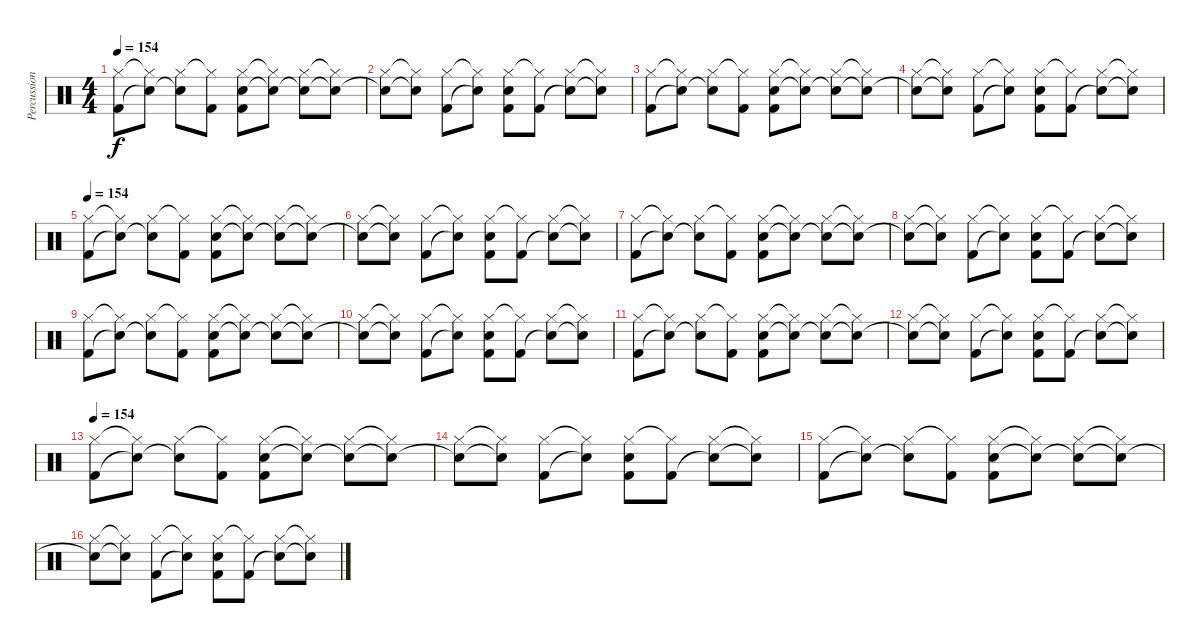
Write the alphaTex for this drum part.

\track ("Percussion" "Percussion") {instrument percussion}
\staff {score}
\articulation defaults
\ts (4 4)
\tempo 154
\clef neutral
\ks c
("Hi-Hat (closed)" "Kick (hit) 2").8{dy f} ("Hi-Hat (closed)"{t} "Snare (hit)"{t}).8 ("Hi-Hat (closed)" "Snare (hit)"{t}).8 ("Hi-Hat (closed)"{t} "Kick (hit) 2").8 ("Hi-Hat (closed)" "Electric Snare (hit)" "Kick (hit) 2").8 ("Hi-Hat (closed)"{t} "Snare (hit)"{t}).8 ("Hi-Hat (closed)" "Snare (hit)"{t}).8 ("Hi-Hat (closed)"{t} "Snare (hit)"{t}).8 |
("Hi-Hat (closed)" "Snare (hit)"{t}).8 ("Hi-Hat (closed)"{t} "Snare (hit)"{t}).8 ("Hi-Hat (closed)" "Kick (hit) 2").8 ("Hi-Hat (closed)"{t} "Snare (hit)"{t}).8 ("Hi-Hat (closed)" "Electric Snare (hit)" "Kick (hit) 2").8 ("Hi-Hat (closed)"{t} "Kick (hit) 2").8 ("Hi-Hat (closed)" "Snare (hit)"{t}).8 ("Hi-Hat (closed)"{t} "Snare (hit)"{t}).8 |
("Hi-Hat (closed)" "Kick (hit) 2").8 ("Hi-Hat (closed)"{t} "Snare (hit)"{t}).8 ("Hi-Hat (closed)" "Snare (hit)"{t}).8 ("Hi-Hat (closed)"{t} "Kick (hit) 2").8 ("Hi-Hat (closed)" "Electric Snare (hit)" "Kick (hit) 2").8 ("Hi-Hat (closed)"{t} "Snare (hit)"{t}).8 ("Hi-Hat (closed)" "Snare (hit)"{t}).8 ("Hi-Hat (closed)"{t} "Snare (hit)"{t}).8 |
("Hi-Hat (closed)" "Snare (hit)"{t}).8 ("Hi-Hat (closed)"{t} "Snare (hit)"{t}).8 ("Hi-Hat (closed)" "Kick (hit) 2").8 ("Hi-Hat (closed)"{t} "Snare (hit)"{t}).8 ("Hi-Hat (closed)" "Electric Snare (hit)" "Kick (hit) 2").8 ("Hi-Hat (closed)"{t} "Kick (hit) 2").8 ("Hi-Hat (closed)" "Snare (hit)"{t}).8 ("Hi-Hat (closed)"{t} "Snare (hit)"{t}).8 |
\tempo 154
("Hi-Hat (closed)" "Kick (hit) 2").8 ("Hi-Hat (closed)"{t} "Snare (hit)"{t}).8 ("Hi-Hat (closed)" "Snare (hit)"{t}).8 ("Hi-Hat (closed)"{t} "Kick (hit) 2").8 ("Hi-Hat (closed)" "Electric Snare (hit)" "Kick (hit) 2").8 ("Hi-Hat (closed)"{t} "Snare (hit)"{t}).8 ("Hi-Hat (closed)" "Snare (hit)"{t}).8 ("Hi-Hat (closed)"{t} "Snare (hit)"{t}).8 |
("Hi-Hat (closed)" "Snare (hit)"{t}).8 ("Hi-Hat (closed)"{t} "Snare (hit)"{t}).8 ("Hi-Hat (closed)" "Kick (hit) 2").8 ("Hi-Hat (closed)"{t} "Snare (hit)"{t}).8 ("Hi-Hat (closed)" "Electric Snare (hit)" "Kick (hit) 2").8 ("Hi-Hat (closed)"{t} "Kick (hit) 2").8 ("Hi-Hat (closed)" "Snare (hit)"{t}).8 ("Hi-Hat (closed)"{t} "Snare (hit)"{t}).8 |
("Hi-Hat (closed)" "Kick (hit) 2").8 ("Hi-Hat (closed)"{t} "Snare (hit)"{t}).8 ("Hi-Hat (closed)" "Snare (hit)"{t}).8 ("Hi-Hat (closed)"{t} "Kick (hit) 2").8 ("Hi-Hat (closed)" "Electric Snare (hit)" "Kick (hit) 2").8 ("Hi-Hat (closed)"{t} "Snare (hit)"{t}).8 ("Hi-Hat (closed)" "Snare (hit)"{t}).8 ("Hi-Hat (closed)"{t} "Snare (hit)"{t}).8 |
("Hi-Hat (closed)" "Snare (hit)"{t}).8 ("Hi-Hat (closed)"{t} "Snare (hit)"{t}).8 ("Hi-Hat (closed)" "Kick (hit) 2").8 ("Hi-Hat (closed)"{t} "Snare (hit)"{t}).8 ("Hi-Hat (closed)" "Electric Snare (hit)" "Kick (hit) 2").8 ("Hi-Hat (closed)"{t} "Kick (hit) 2").8 ("Hi-Hat (closed)" "Snare (hit)"{t}).8 ("Hi-Hat (closed)"{t} "Snare (hit)"{t}).8 |
("Hi-Hat (closed)" "Kick (hit) 2").8 ("Hi-Hat (closed)"{t} "Snare (hit)"{t}).8 ("Hi-Hat (closed)" "Snare (hit)"{t}).8 ("Hi-Hat (closed)"{t} "Kick (hit) 2").8 ("Hi-Hat (closed)" "Electric Snare (hit)" "Kick (hit) 2").8 ("Hi-Hat (closed)"{t} "Snare (hit)"{t}).8 ("Hi-Hat (closed)" "Snare (hit)"{t}).8 ("Hi-Hat (closed)"{t} "Snare (hit)"{t}).8 |
("Hi-Hat (closed)" "Snare (hit)"{t}).8 ("Hi-Hat (closed)"{t} "Snare (hit)"{t}).8 ("Hi-Hat (closed)" "Kick (hit) 2").8 ("Hi-Hat (closed)"{t} "Snare (hit)"{t}).8 ("Hi-Hat (closed)" "Electric Snare (hit)" "Kick (hit) 2").8 ("Hi-Hat (closed)"{t} "Kick (hit) 2").8 ("Hi-Hat (closed)" "Snare (hit)"{t}).8 ("Hi-Hat (closed)"{t} "Snare (hit)"{t}).8 |
("Hi-Hat (closed)" "Kick (hit) 2").8 ("Hi-Hat (closed)"{t} "Snare (hit)"{t}).8 ("Hi-Hat (closed)" "Snare (hit)"{t}).8 ("Hi-Hat (closed)"{t} "Kick (hit) 2").8 ("Hi-Hat (closed)" "Electric Snare (hit)" "Kick (hit) 2").8 ("Hi-Hat (closed)"{t} "Snare (hit)"{t}).8 ("Hi-Hat (closed)" "Snare (hit)"{t}).8 ("Hi-Hat (closed)"{t} "Snare (hit)"{t}).8 |
("Hi-Hat (closed)" "Snare (hit)"{t}).8 ("Hi-Hat (closed)"{t} "Snare (hit)"{t}).8 ("Hi-Hat (closed)" "Kick (hit) 2").8 ("Hi-Hat (closed)"{t} "Snare (hit)"{t}).8 ("Hi-Hat (closed)" "Electric Snare (hit)" "Kick (hit) 2").8 ("Hi-Hat (closed)"{t} "Kick (hit) 2").8 ("Hi-Hat (closed)" "Snare (hit)"{t}).8 ("Hi-Hat (closed)"{t} "Snare (hit)"{t}).8 |
\tempo 154
("Hi-Hat (closed)" "Kick (hit) 2").8 ("Hi-Hat (closed)"{t} "Snare (hit)"{t}).8 ("Hi-Hat (closed)" "Snare (hit)"{t}).8 ("Hi-Hat (closed)"{t} "Kick (hit) 2").8 ("Hi-Hat (closed)" "Electric Snare (hit)" "Kick (hit) 2").8 ("Hi-Hat (closed)"{t} "Snare (hit)"{t}).8 ("Hi-Hat (closed)" "Snare (hit)"{t}).8 ("Hi-Hat (closed)"{t} "Snare (hit)"{t}).8 |
("Hi-Hat (closed)" "Snare (hit)"{t}).8 ("Hi-Hat (closed)"{t} "Snare (hit)"{t}).8 ("Hi-Hat (closed)" "Kick (hit) 2").8 ("Hi-Hat (closed)"{t} "Snare (hit)"{t}).8 ("Hi-Hat (closed)" "Electric Snare (hit)" "Kick (hit) 2").8 ("Hi-Hat (closed)"{t} "Kick (hit) 2").8 ("Hi-Hat (closed)" "Snare (hit)"{t}).8 ("Hi-Hat (closed)"{t} "Snare (hit)"{t}).8 |
("Hi-Hat (closed)" "Kick (hit) 2").8 ("Hi-Hat (closed)"{t} "Snare (hit)"{t}).8 ("Hi-Hat (closed)" "Snare (hit)"{t}).8 ("Hi-Hat (closed)"{t} "Kick (hit) 2").8 ("Hi-Hat (closed)" "Electric Snare (hit)" "Kick (hit) 2").8 ("Hi-Hat (closed)"{t} "Snare (hit)"{t}).8 ("Hi-Hat (closed)" "Snare (hit)"{t}).8 ("Hi-Hat (closed)"{t} "Snare (hit)"{t}).8 |
("Hi-Hat (closed)" "Snare (hit)"{t}).8 ("Hi-Hat (closed)"{t} "Snare (hit)"{t}).8 ("Hi-Hat (closed)" "Kick (hit) 2").8 ("Hi-Hat (closed)"{t} "Snare (hit)"{t}).8 ("Hi-Hat (closed)" "Electric Snare (hit)" "Kick (hit) 2").8 ("Hi-Hat (closed)"{t} "Kick (hit) 2").8 ("Hi-Hat (closed)" "Snare (hit)"{t}).8 ("Hi-Hat (closed)"{t} "Snare (hit)"{t}).8
